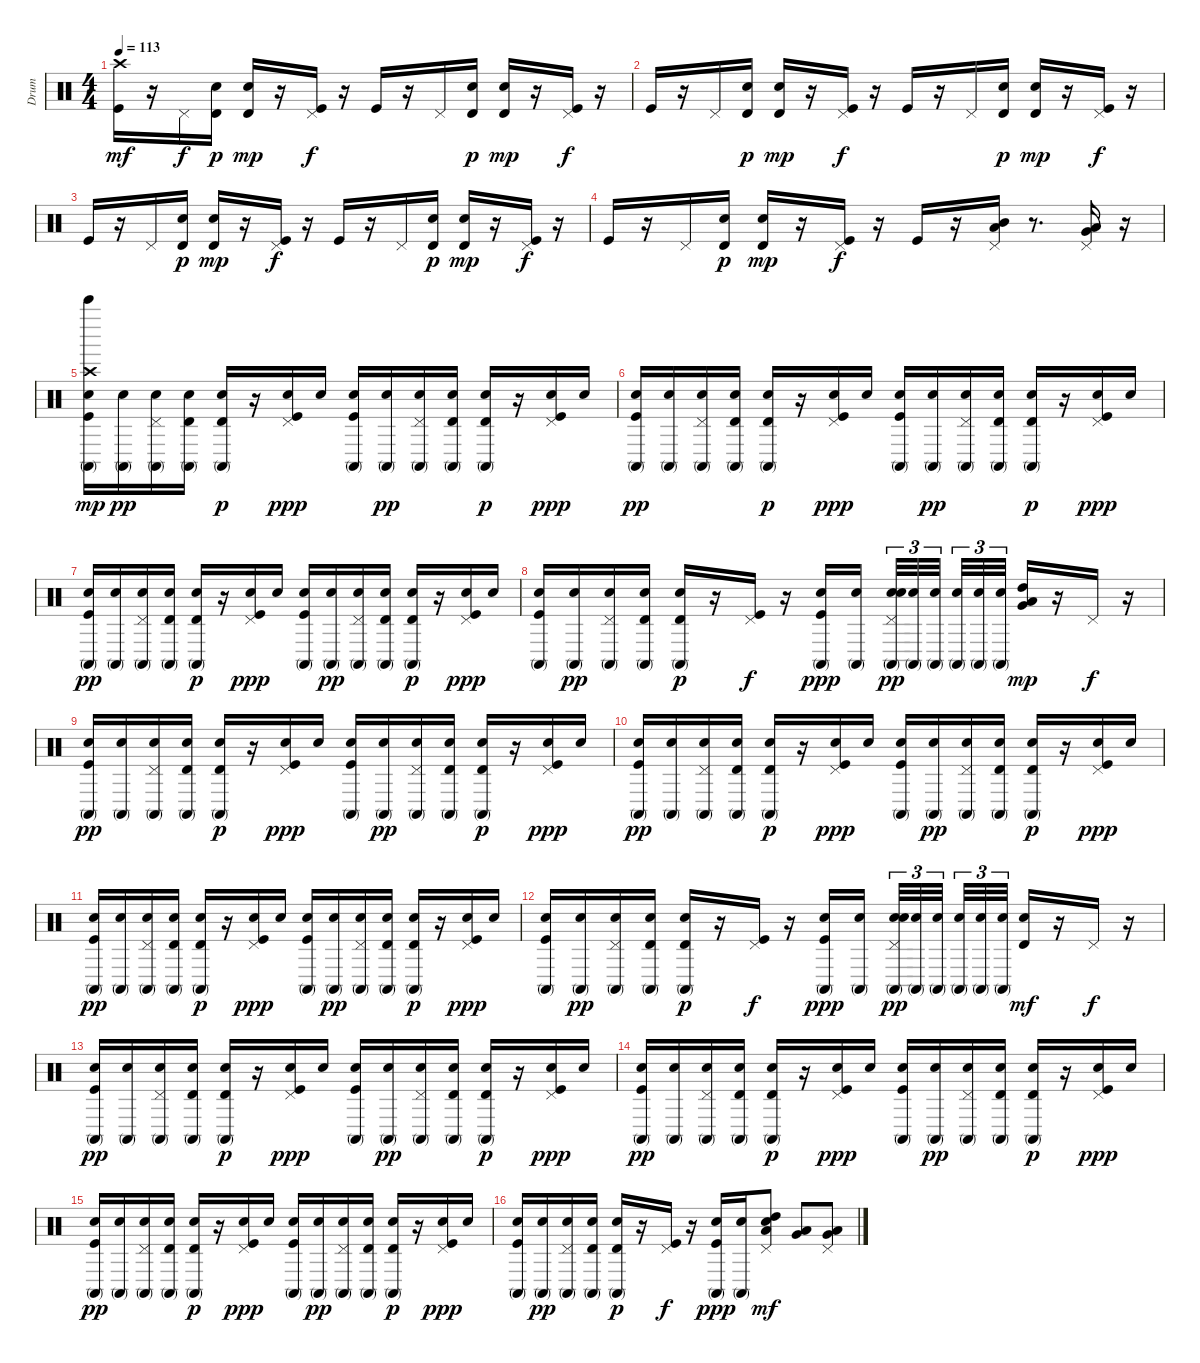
\track ("Drum" "Drum") {instrument percussion}
\staff {score}
\articulation defaults
\ts (4 4)
\tempo 113
\clef neutral
\ks c
("Crash high (hit)" "Kick (hit)").16{dy mf} r.16 "Pedal Hi-Hat (hit)".16{dy f} ("Electric Snare (hit)" "Timbale high (hit)").16{dy p} ("Electric Snare (hit)" "Timbale high (hit)").16{dy mp} r.16 ("Kick (hit)" "Pedal Hi-Hat (hit)").16{dy f} r.16 "Kick (hit)".16 r.16 "Pedal Hi-Hat (hit)".16 ("Electric Snare (hit)" "Timbale high (hit)").16{dy p} ("Electric Snare (hit)" "Timbale high (hit)").16{dy mp} r.16 ("Kick (hit)" "Pedal Hi-Hat (hit)").16{dy f} r.16 |
"Kick (hit)".16 r.16 "Pedal Hi-Hat (hit)".16 ("Electric Snare (hit)" "Timbale high (hit)").16{dy p} ("Electric Snare (hit)" "Timbale high (hit)").16{dy mp} r.16 ("Kick (hit)" "Pedal Hi-Hat (hit)").16{dy f} r.16 "Kick (hit)".16 r.16 "Pedal Hi-Hat (hit)".16 ("Electric Snare (hit)" "Timbale high (hit)").16{dy p} ("Electric Snare (hit)" "Timbale high (hit)").16{dy mp} r.16 ("Kick (hit)" "Pedal Hi-Hat (hit)").16{dy f} r.16 |
"Kick (hit)".16 r.16 "Pedal Hi-Hat (hit)".16 ("Electric Snare (hit)" "Timbale high (hit)").16{dy p} ("Electric Snare (hit)" "Timbale high (hit)").16{dy mp} r.16 ("Kick (hit)" "Pedal Hi-Hat (hit)").16{dy f} r.16 "Kick (hit)".16 r.16 "Pedal Hi-Hat (hit)".16 ("Electric Snare (hit)" "Timbale high (hit)").16{dy p} ("Electric Snare (hit)" "Timbale high (hit)").16{dy mp} r.16 ("Kick (hit)" "Pedal Hi-Hat (hit)").16{dy f} r.16 |
"Kick (hit)".16 r.16 "Pedal Hi-Hat (hit)".16 ("Electric Snare (hit)" "Timbale high (hit)").16{dy p} ("Electric Snare (hit)" "Timbale high (hit)").16{dy mp} r.16 ("Kick (hit)" "Pedal Hi-Hat (hit)").16{dy f} r.16 "Kick (hit)".16 r.16 ("Low Tom (hit)" "Mid Tom (hit)" "Pedal Hi-Hat (hit)").16 r.8{d} ("Low Tom (hit)" "Very Low Tom (hit)" "Pedal Hi-Hat (hit)").16 r.16 |
("Crash high (hit)" "Electric Snare (hit)" "Conga high (mute)" "Kick (hit)" "Bell Tree (hit)").16{dy mp} ("Electric Snare (hit)" "Conga high (mute)").16{dy pp} ("Electric Snare (hit)" "Conga high (mute)" "Pedal Hi-Hat (hit)").16 ("Electric Snare (hit)" "Conga high (mute)" "Timbale high (hit)").16 ("Electric Snare (hit)" "Conga high (mute)" "Timbale high (hit)").16{dy p} r.16 ("Electric Snare (hit)" "Kick (hit)" "Pedal Hi-Hat (hit)").16{dy ppp} "Electric Snare (hit)".16 ("Electric Snare (hit)" "Conga high (mute)" "Kick (hit)").16 ("Electric Snare (hit)" "Conga high (mute)").16{dy pp} ("Electric Snare (hit)" "Conga high (mute)" "Pedal Hi-Hat (hit)").16 ("Electric Snare (hit)" "Conga high (mute)" "Timbale high (hit)").16 ("Electric Snare (hit)" "Conga high (mute)" "Timbale high (hit)").16{dy p} r.16 ("Electric Snare (hit)" "Kick (hit)" "Pedal Hi-Hat (hit)").16{dy ppp} "Electric Snare (hit)".16 |
("Electric Snare (hit)" "Conga high (mute)" "Kick (hit)").16{dy pp} ("Electric Snare (hit)" "Conga high (mute)").16 ("Electric Snare (hit)" "Conga high (mute)" "Pedal Hi-Hat (hit)").16 ("Electric Snare (hit)" "Conga high (mute)" "Timbale high (hit)").16 ("Electric Snare (hit)" "Conga high (mute)" "Timbale high (hit)").16{dy p} r.16 ("Electric Snare (hit)" "Kick (hit)" "Pedal Hi-Hat (hit)").16{dy ppp} "Electric Snare (hit)".16 ("Electric Snare (hit)" "Conga high (mute)" "Kick (hit)").16 ("Electric Snare (hit)" "Conga high (mute)").16{dy pp} ("Electric Snare (hit)" "Conga high (mute)" "Pedal Hi-Hat (hit)").16 ("Electric Snare (hit)" "Conga high (mute)" "Timbale high (hit)").16 ("Electric Snare (hit)" "Conga high (mute)" "Timbale high (hit)").16{dy p} r.16 ("Electric Snare (hit)" "Kick (hit)" "Pedal Hi-Hat (hit)").16{dy ppp} "Electric Snare (hit)".16 |
("Electric Snare (hit)" "Conga high (mute)" "Kick (hit)").16{dy pp} ("Electric Snare (hit)" "Conga high (mute)").16 ("Electric Snare (hit)" "Conga high (mute)" "Pedal Hi-Hat (hit)").16 ("Electric Snare (hit)" "Conga high (mute)" "Timbale high (hit)").16 ("Electric Snare (hit)" "Conga high (mute)" "Timbale high (hit)").16{dy p} r.16 ("Electric Snare (hit)" "Kick (hit)" "Pedal Hi-Hat (hit)").16{dy ppp} "Electric Snare (hit)".16 ("Electric Snare (hit)" "Conga high (mute)" "Kick (hit)").16 ("Electric Snare (hit)" "Conga high (mute)").16{dy pp} ("Electric Snare (hit)" "Conga high (mute)" "Pedal Hi-Hat (hit)").16 ("Electric Snare (hit)" "Conga high (mute)" "Timbale high (hit)").16 ("Electric Snare (hit)" "Conga high (mute)" "Timbale high (hit)").16{dy p} r.16 ("Electric Snare (hit)" "Kick (hit)" "Pedal Hi-Hat (hit)").16{dy ppp} "Electric Snare (hit)".16 |
("Electric Snare (hit)" "Conga high (mute)" "Kick (hit)").16 ("Electric Snare (hit)" "Conga high (mute)").16{dy pp} ("Electric Snare (hit)" "Conga high (mute)" "Pedal Hi-Hat (hit)").16 ("Electric Snare (hit)" "Conga high (mute)" "Timbale high (hit)").16 ("Electric Snare (hit)" "Conga high (mute)" "Timbale high (hit)").16{dy p} r.16 ("Kick (hit)" "Pedal Hi-Hat (hit)").16{dy f} r.16 ("Electric Snare (hit)" "Conga high (mute)" "Kick (hit)").16{dy ppp} ("Electric Snare (hit)" "Conga high (mute)").16 ("Electric Snare (hit)" "Electric Snare (hit)" "Conga high (mute)" "Pedal Hi-Hat (hit)").32{tu (3 2) dy pp} ("Electric Snare (hit)" "Conga high (mute)").32{tu (3 2)} ("Electric Snare (hit)" "Conga high (mute)").32{tu (3 2)} ("Electric Snare (hit)" "Conga high (mute)").32{tu (3 2)} ("Electric Snare (hit)" "Conga high (mute)").32{tu (3 2)} ("Electric Snare (hit)" "Conga high (mute)").32{tu (3 2)} ("High Tom (hit)" "Low Tom (hit)" "Very Low Tom (hit)").16{dy mp} r.16 "Pedal Hi-Hat (hit)".16{dy f} r.16 |
("Electric Snare (hit)" "Conga high (mute)" "Kick (hit)").16{dy pp} ("Electric Snare (hit)" "Conga high (mute)").16 ("Electric Snare (hit)" "Conga high (mute)" "Pedal Hi-Hat (hit)").16 ("Electric Snare (hit)" "Conga high (mute)" "Timbale high (hit)").16 ("Electric Snare (hit)" "Conga high (mute)" "Timbale high (hit)").16{dy p} r.16 ("Electric Snare (hit)" "Kick (hit)" "Pedal Hi-Hat (hit)").16{dy ppp} "Electric Snare (hit)".16 ("Electric Snare (hit)" "Conga high (mute)" "Kick (hit)").16 ("Electric Snare (hit)" "Conga high (mute)").16{dy pp} ("Electric Snare (hit)" "Conga high (mute)" "Pedal Hi-Hat (hit)").16 ("Electric Snare (hit)" "Conga high (mute)" "Timbale high (hit)").16 ("Electric Snare (hit)" "Conga high (mute)" "Timbale high (hit)").16{dy p} r.16 ("Electric Snare (hit)" "Kick (hit)" "Pedal Hi-Hat (hit)").16{dy ppp} "Electric Snare (hit)".16 |
("Electric Snare (hit)" "Conga high (mute)" "Kick (hit)").16{dy pp} ("Electric Snare (hit)" "Conga high (mute)").16 ("Electric Snare (hit)" "Conga high (mute)" "Pedal Hi-Hat (hit)").16 ("Electric Snare (hit)" "Conga high (mute)" "Timbale high (hit)").16 ("Electric Snare (hit)" "Conga high (mute)" "Timbale high (hit)").16{dy p} r.16 ("Electric Snare (hit)" "Kick (hit)" "Pedal Hi-Hat (hit)").16{dy ppp} "Electric Snare (hit)".16 ("Electric Snare (hit)" "Conga high (mute)" "Kick (hit)").16 ("Electric Snare (hit)" "Conga high (mute)").16{dy pp} ("Electric Snare (hit)" "Conga high (mute)" "Pedal Hi-Hat (hit)").16 ("Electric Snare (hit)" "Conga high (mute)" "Timbale high (hit)").16 ("Electric Snare (hit)" "Conga high (mute)" "Timbale high (hit)").16{dy p} r.16 ("Electric Snare (hit)" "Kick (hit)" "Pedal Hi-Hat (hit)").16{dy ppp} "Electric Snare (hit)".16 |
("Electric Snare (hit)" "Conga high (mute)" "Kick (hit)").16{dy pp} ("Electric Snare (hit)" "Conga high (mute)").16 ("Electric Snare (hit)" "Conga high (mute)" "Pedal Hi-Hat (hit)").16 ("Electric Snare (hit)" "Conga high (mute)" "Timbale high (hit)").16 ("Electric Snare (hit)" "Conga high (mute)" "Timbale high (hit)").16{dy p} r.16 ("Electric Snare (hit)" "Kick (hit)" "Pedal Hi-Hat (hit)").16{dy ppp} "Electric Snare (hit)".16 ("Electric Snare (hit)" "Conga high (mute)" "Kick (hit)").16 ("Electric Snare (hit)" "Conga high (mute)").16{dy pp} ("Electric Snare (hit)" "Conga high (mute)" "Pedal Hi-Hat (hit)").16 ("Electric Snare (hit)" "Conga high (mute)" "Timbale high (hit)").16 ("Electric Snare (hit)" "Conga high (mute)" "Timbale high (hit)").16{dy p} r.16 ("Electric Snare (hit)" "Kick (hit)" "Pedal Hi-Hat (hit)").16{dy ppp} "Electric Snare (hit)".16 |
("Electric Snare (hit)" "Conga high (mute)" "Kick (hit)").16 ("Electric Snare (hit)" "Conga high (mute)").16{dy pp} ("Electric Snare (hit)" "Conga high (mute)" "Pedal Hi-Hat (hit)").16 ("Electric Snare (hit)" "Conga high (mute)" "Timbale high (hit)").16 ("Electric Snare (hit)" "Conga high (mute)" "Timbale high (hit)").16{dy p} r.16 ("Kick (hit)" "Pedal Hi-Hat (hit)").16{dy f} r.16 ("Electric Snare (hit)" "Conga high (mute)" "Kick (hit)").16{dy ppp} ("Electric Snare (hit)" "Conga high (mute)").16 ("Electric Snare (hit)" "Electric Snare (hit)" "Conga high (mute)" "Pedal Hi-Hat (hit)").32{tu (3 2) dy pp} ("Electric Snare (hit)" "Conga high (mute)").32{tu (3 2)} ("Electric Snare (hit)" "Conga high (mute)").32{tu (3 2)} ("Electric Snare (hit)" "Conga high (mute)").32{tu (3 2)} ("Electric Snare (hit)" "Conga high (mute)").32{tu (3 2)} ("Electric Snare (hit)" "Conga high (mute)").32{tu (3 2)} ("Timbale high (hit)" "Electric Snare (hit)").16{dy mf} r.16 "Pedal Hi-Hat (hit)".16{dy f} r.16 |
("Electric Snare (hit)" "Conga high (mute)" "Kick (hit)").16{dy pp} ("Electric Snare (hit)" "Conga high (mute)").16 ("Electric Snare (hit)" "Conga high (mute)" "Pedal Hi-Hat (hit)").16 ("Electric Snare (hit)" "Conga high (mute)" "Timbale high (hit)").16 ("Electric Snare (hit)" "Conga high (mute)" "Timbale high (hit)").16{dy p} r.16 ("Electric Snare (hit)" "Kick (hit)" "Pedal Hi-Hat (hit)").16{dy ppp} "Electric Snare (hit)".16 ("Electric Snare (hit)" "Conga high (mute)" "Kick (hit)").16 ("Electric Snare (hit)" "Conga high (mute)").16{dy pp} ("Electric Snare (hit)" "Conga high (mute)" "Pedal Hi-Hat (hit)").16 ("Electric Snare (hit)" "Conga high (mute)" "Timbale high (hit)").16 ("Electric Snare (hit)" "Conga high (mute)" "Timbale high (hit)").16{dy p} r.16 ("Electric Snare (hit)" "Kick (hit)" "Pedal Hi-Hat (hit)").16{dy ppp} "Electric Snare (hit)".16 |
("Electric Snare (hit)" "Conga high (mute)" "Kick (hit)").16{dy pp} ("Electric Snare (hit)" "Conga high (mute)").16 ("Electric Snare (hit)" "Conga high (mute)" "Pedal Hi-Hat (hit)").16 ("Electric Snare (hit)" "Conga high (mute)" "Timbale high (hit)").16 ("Electric Snare (hit)" "Conga high (mute)" "Timbale high (hit)").16{dy p} r.16 ("Electric Snare (hit)" "Kick (hit)" "Pedal Hi-Hat (hit)").16{dy ppp} "Electric Snare (hit)".16 ("Electric Snare (hit)" "Conga high (mute)" "Kick (hit)").16 ("Electric Snare (hit)" "Conga high (mute)").16{dy pp} ("Electric Snare (hit)" "Conga high (mute)" "Pedal Hi-Hat (hit)").16 ("Electric Snare (hit)" "Conga high (mute)" "Timbale high (hit)").16 ("Electric Snare (hit)" "Conga high (mute)" "Timbale high (hit)").16{dy p} r.16 ("Electric Snare (hit)" "Kick (hit)" "Pedal Hi-Hat (hit)").16{dy ppp} "Electric Snare (hit)".16 |
("Electric Snare (hit)" "Conga high (mute)" "Kick (hit)").16{dy pp} ("Electric Snare (hit)" "Conga high (mute)").16 ("Electric Snare (hit)" "Conga high (mute)" "Pedal Hi-Hat (hit)").16 ("Electric Snare (hit)" "Conga high (mute)" "Timbale high (hit)").16 ("Electric Snare (hit)" "Conga high (mute)" "Timbale high (hit)").16{dy p} r.16 ("Electric Snare (hit)" "Kick (hit)" "Pedal Hi-Hat (hit)").16{dy ppp} "Electric Snare (hit)".16 ("Electric Snare (hit)" "Conga high (mute)" "Kick (hit)").16 ("Electric Snare (hit)" "Conga high (mute)").16{dy pp} ("Electric Snare (hit)" "Conga high (mute)" "Pedal Hi-Hat (hit)").16 ("Electric Snare (hit)" "Conga high (mute)" "Timbale high (hit)").16 ("Electric Snare (hit)" "Conga high (mute)" "Timbale high (hit)").16{dy p} r.16 ("Electric Snare (hit)" "Kick (hit)" "Pedal Hi-Hat (hit)").16{dy ppp} "Electric Snare (hit)".16 |
("Electric Snare (hit)" "Conga high (mute)" "Kick (hit)").16 ("Electric Snare (hit)" "Conga high (mute)").16{dy pp} ("Electric Snare (hit)" "Conga high (mute)" "Pedal Hi-Hat (hit)").16 ("Electric Snare (hit)" "Conga high (mute)" "Timbale high (hit)").16 ("Electric Snare (hit)" "Conga high (mute)" "Timbale high (hit)").16{dy p} r.16 ("Kick (hit)" "Pedal Hi-Hat (hit)").16{dy f} r.16 ("Electric Snare (hit)" "Conga high (mute)" "Kick (hit)").16{dy ppp} ("Electric Snare (hit)" "Conga high (mute)").16 ("Electric Snare (hit)" "Low Tom (hit)" "High Tom (hit)" "Pedal Hi-Hat (hit)").8{dy mf} ("Very Low Tom (hit)" "Low Tom (hit)").8 ("Low Floor Tom (hit)" "Very Low Tom (hit)" "Pedal Hi-Hat (hit)").8
